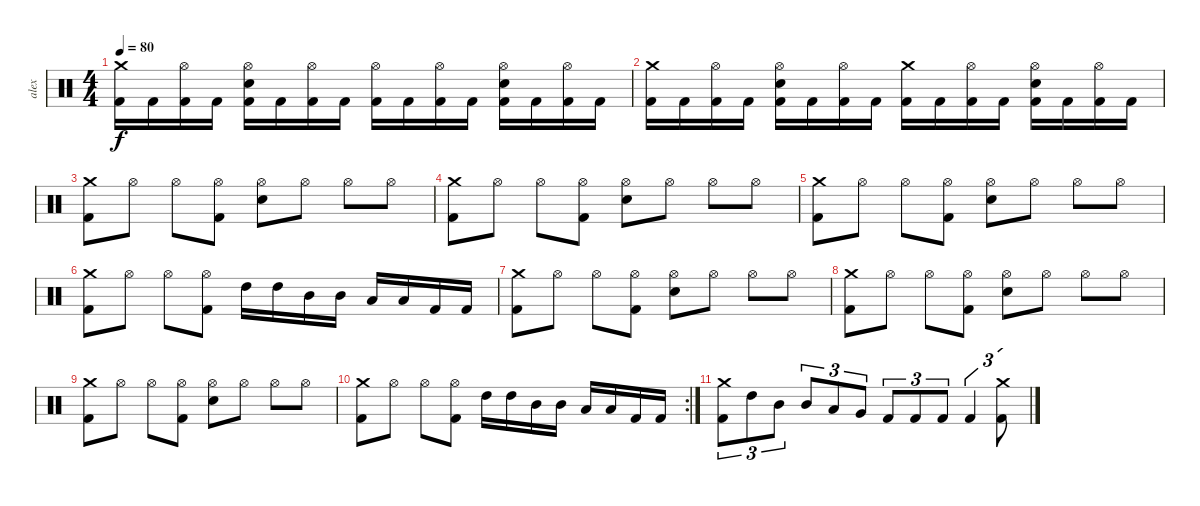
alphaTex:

\track ("alex" "alex") {instrument percussion}
\staff {score}
\articulation defaults
\ts (4 4)
\tempo 80
\clef neutral
\ks c
("Kick (hit) 2" "Crash medium (hit)").16{dy f} "Kick (hit) 2".16 ("Kick (hit) 2" "Hi-Hat (open)").16 "Kick (hit) 2".16 ("Snare (hit) 2" "Kick (hit) 2" "Hi-Hat (open)").16 "Kick (hit) 2".16 ("Kick (hit) 2" "Hi-Hat (open)").16 "Kick (hit) 2".16 ("Kick (hit) 2" "Hi-Hat (open)").16 "Kick (hit) 2".16 ("Kick (hit) 2" "Hi-Hat (open)").16 "Kick (hit) 2".16 ("Snare (hit) 2" "Kick (hit) 2" "Hi-Hat (open)").16 "Kick (hit) 2".16 ("Kick (hit) 2" "Hi-Hat (open)").16 "Kick (hit) 2".16 |
("Kick (hit) 2" "Crash medium (hit)").16 "Kick (hit) 2".16 ("Kick (hit) 2" "Hi-Hat (open)").16 "Kick (hit) 2".16 ("Snare (hit) 2" "Kick (hit) 2" "Hi-Hat (open)").16 "Kick (hit) 2".16 ("Kick (hit) 2" "Hi-Hat (open)").16 "Kick (hit) 2".16 ("Kick (hit) 2" "Crash medium (hit)").16 "Kick (hit) 2".16 ("Kick (hit) 2" "Hi-Hat (open)").16 "Kick (hit) 2".16 ("Snare (hit) 2" "Kick (hit) 2" "Hi-Hat (open)").16 "Kick (hit) 2".16 ("Kick (hit) 2" "Hi-Hat (open)").16 "Kick (hit) 2".16 |
("Kick (hit) 2" "Crash medium (hit)").8 "Hi-Hat (open)".8 "Hi-Hat (open)".8 ("Kick (hit) 2" "Hi-Hat (open)").8 ("Snare (hit) 2" "Hi-Hat (open)").8 "Hi-Hat (open)".8 "Hi-Hat (open)".8 "Hi-Hat (open)".8 |
("Kick (hit) 2" "Crash medium (hit)").8 "Hi-Hat (open)".8 "Hi-Hat (open)".8 ("Kick (hit) 2" "Hi-Hat (open)").8 ("Snare (hit) 2" "Hi-Hat (open)").8 "Hi-Hat (open)".8 "Hi-Hat (open)".8 "Hi-Hat (open)".8 |
("Kick (hit) 2" "Crash medium (hit)").8 "Hi-Hat (open)".8 "Hi-Hat (open)".8 ("Kick (hit) 2" "Hi-Hat (open)").8 ("Snare (hit) 2" "Hi-Hat (open)").8 "Hi-Hat (open)".8 "Hi-Hat (open)".8 "Hi-Hat (open)".8 |
("Kick (hit) 2" "Crash medium (hit)").8 "Hi-Hat (open)".8 "Hi-Hat (open)".8 ("Kick (hit) 2" "Hi-Hat (open)").8 "High Tom (hit)".16 "High Tom (hit)".16 "Mid Tom (hit)".16 "Mid Tom (hit)".16 "Low Tom (hit)".16 "Low Tom (hit)".16 "Kick (hit) 2".16 "Kick (hit) 2".16 |
("Kick (hit) 2" "Crash medium (hit)").8 "Hi-Hat (open)".8 "Hi-Hat (open)".8 ("Kick (hit) 2" "Hi-Hat (open)").8 ("Snare (hit) 2" "Hi-Hat (open)").8 "Hi-Hat (open)".8 "Hi-Hat (open)".8 "Hi-Hat (open)".8 |
("Kick (hit) 2" "Crash medium (hit)").8 "Hi-Hat (open)".8 "Hi-Hat (open)".8 ("Kick (hit) 2" "Hi-Hat (open)").8 ("Snare (hit) 2" "Hi-Hat (open)").8 "Hi-Hat (open)".8 "Hi-Hat (open)".8 "Hi-Hat (open)".8 |
("Kick (hit) 2" "Crash medium (hit)").8 "Hi-Hat (open)".8 "Hi-Hat (open)".8 ("Kick (hit) 2" "Hi-Hat (open)").8 ("Snare (hit) 2" "Hi-Hat (open)").8 "Hi-Hat (open)".8 "Hi-Hat (open)".8 "Hi-Hat (open)".8 |
\rc 2
("Kick (hit) 2" "Crash medium (hit)").8 "Hi-Hat (open)".8 "Hi-Hat (open)".8 ("Kick (hit) 2" "Hi-Hat (open)").8 "High Tom (hit)".16 "High Tom (hit)".16 "Mid Tom (hit)".16 "Mid Tom (hit)".16 "Low Tom (hit)".16 "Low Tom (hit)".16 "Kick (hit) 2".16 "Kick (hit) 2".16 |
("Crash medium (hit)" "Kick (hit) 2").8{tu (3 2)} "High Tom (hit)".8{tu (3 2)} "Mid Tom (hit)".8{tu (3 2)} "Mid Tom (hit)".8{tu (3 2)} "Low Tom (hit)".8{tu (3 2)} "Very Low Tom (hit)".8{tu (3 2)} "Kick (hit) 2".8{tu (3 2)} "Kick (hit) 2".8{tu (3 2)} "Kick (hit) 2".8{tu (3 2)} "Kick (hit) 2".4{tu (3 2)} ("Crash medium (hit)" "Kick (hit) 2").8{tu (3 2)}
